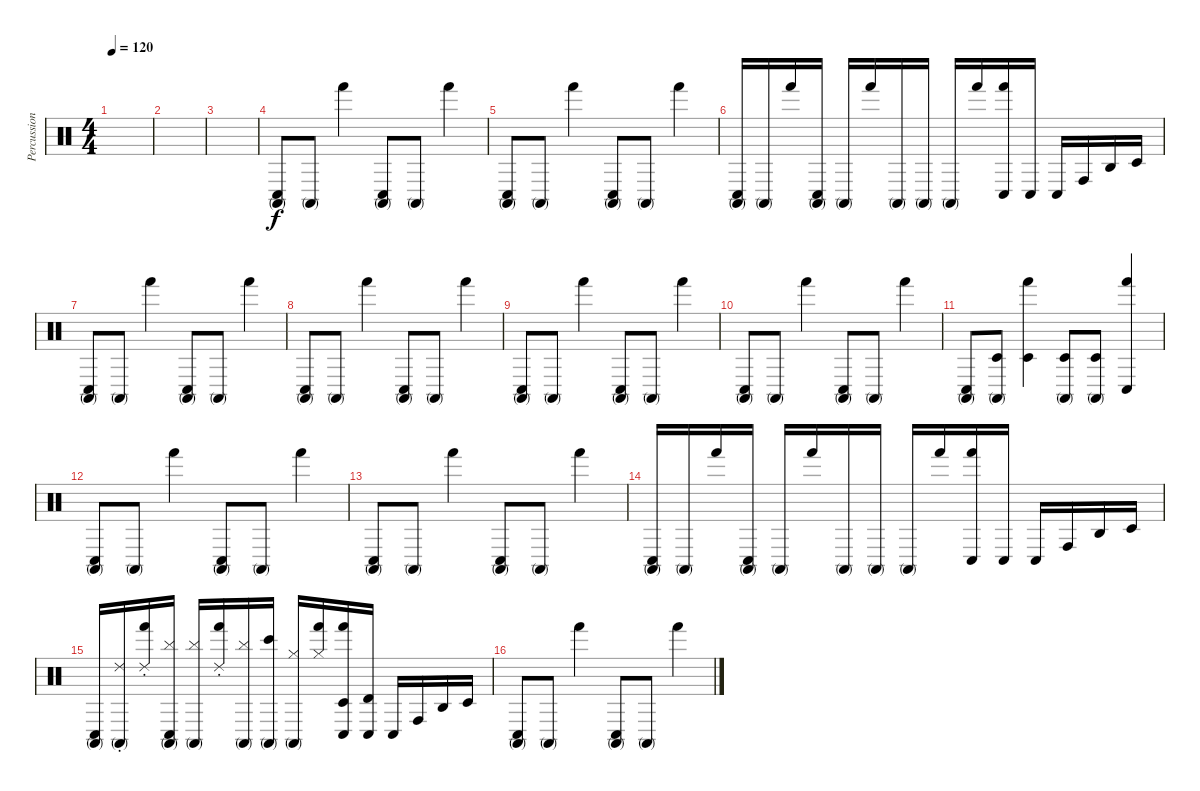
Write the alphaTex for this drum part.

\track ("Percussions" "Percussion") {instrument percussion}
\staff {score}
\articulation defaults
\ts (4 4)
\tempo 120
\clef neutral
\ks c
|
|
|
("Conga high (mute)" "Conga low (hit)").8 "Conga high (mute)".8 "Hand (hit)".4 ("Conga high (mute)" "Conga low (hit)").8 "Conga high (mute)".8 "Hand (hit)".4 |
("Conga high (mute)" "Conga low (hit)").8 "Conga high (mute)".8 "Hand (hit)".4 ("Conga high (mute)" "Conga low (hit)").8 "Conga high (mute)".8 "Hand (hit)".4 |
("Conga high (mute)" "Conga low (hit)").16 "Conga high (mute)".16 "Hand (hit)".16 ("Conga high (mute)" "Conga low (hit)").16 "Conga high (mute)".16 "Hand (hit)".16 "Conga high (mute)".16 "Conga high (mute)".16 "Conga high (mute)".16 "Hand (hit)".16 ("Conga low (hit)" "Hand (hit)").16 "Conga low (hit)".16 "Conga low (hit)".16 "Conga high (hit)".16 "Agogo high (hit)".16 "Timbale low (hit)".16 |
("Conga high (mute)" "Conga low (hit)").8 "Conga high (mute)".8 "Hand (hit)".4 ("Conga high (mute)" "Conga low (hit)").8 "Conga high (mute)".8 "Hand (hit)".4 |
("Conga high (mute)" "Conga low (hit)").8 "Conga high (mute)".8 "Hand (hit)".4 ("Conga high (mute)" "Conga low (hit)").8 "Conga high (mute)".8 "Hand (hit)".4 |
("Conga high (mute)" "Conga low (hit)").8 "Conga high (mute)".8 "Hand (hit)".4 ("Conga high (mute)" "Conga low (hit)").8 "Conga high (mute)".8 "Hand (hit)".4 |
("Conga high (mute)" "Conga low (hit)").8 "Conga high (mute)".8 "Hand (hit)".4 ("Conga high (mute)" "Conga low (hit)").8 "Conga high (mute)".8 "Hand (hit)".4 |
("Conga high (mute)" "Conga low (hit)").8 ("Conga high (mute)" "Timbale low (hit)").8 ("Hand (hit)" "Timbale low (hit)").4 ("Conga high (mute)" "Timbale low (hit)").8 ("Conga high (mute)" "Timbale low (hit)").8 ("Hand (hit)" "Conga low (hit)").4 |
("Conga high (mute)" "Conga low (hit)").8 "Conga high (mute)".8 "Hand (hit)".4 ("Conga high (mute)" "Conga low (hit)").8 "Conga high (mute)".8 "Hand (hit)".4 |
("Conga high (mute)" "Conga low (hit)").8 "Conga high (mute)".8 "Hand (hit)".4 ("Conga high (mute)" "Conga low (hit)").8 "Conga high (mute)".8 "Hand (hit)".4 |
("Conga high (mute)" "Conga low (hit)").16 "Conga high (mute)".16 "Hand (hit)".16 ("Conga high (mute)" "Conga low (hit)").16 "Conga high (mute)".16 "Hand (hit)".16 "Conga high (mute)".16 "Conga high (mute)".16 "Conga high (mute)".16 "Hand (hit)".16 ("Conga low (hit)" "Hand (hit)").16 "Conga low (hit)".16 "Conga low (hit)".16 "Conga high (hit)".16 "Agogo high (hit)".16 "Timbale low (hit)".16 |
("Conga high (mute)" "Conga low (hit)").16 ("Conga high (mute)" "Ride (choke) 2").16 ("Hand (hit)" "Ride (choke) 2").16 ("Conga high (mute)" "Conga low (hit)" "Cymbal (hit)").16 ("Conga high (mute)" "Cymbal (hit)").16 ("Hand (hit)" "Ride (choke) 2").16 ("Conga high (mute)" "Cymbal (hit)").16 ("Conga high (mute)" "Bongo High (hit)").16 ("Conga high (mute)" "Hi-Hat (closed)").16 ("Hand (hit)" "Hi-Hat (closed)").16 ("Conga low (hit)" "Hand (hit)" "Timbale low (hit)").16 ("Conga low (hit)" "Timbale high (hit)").16 "Conga low (hit)".16 "Conga high (hit)".16 "Agogo high (hit)".16 "Timbale low (hit)".16 |
("Conga high (mute)" "Conga low (hit)").8 "Conga high (mute)".8 "Hand (hit)".4 ("Conga high (mute)" "Conga low (hit)").8 "Conga high (mute)".8 "Hand (hit)".4
